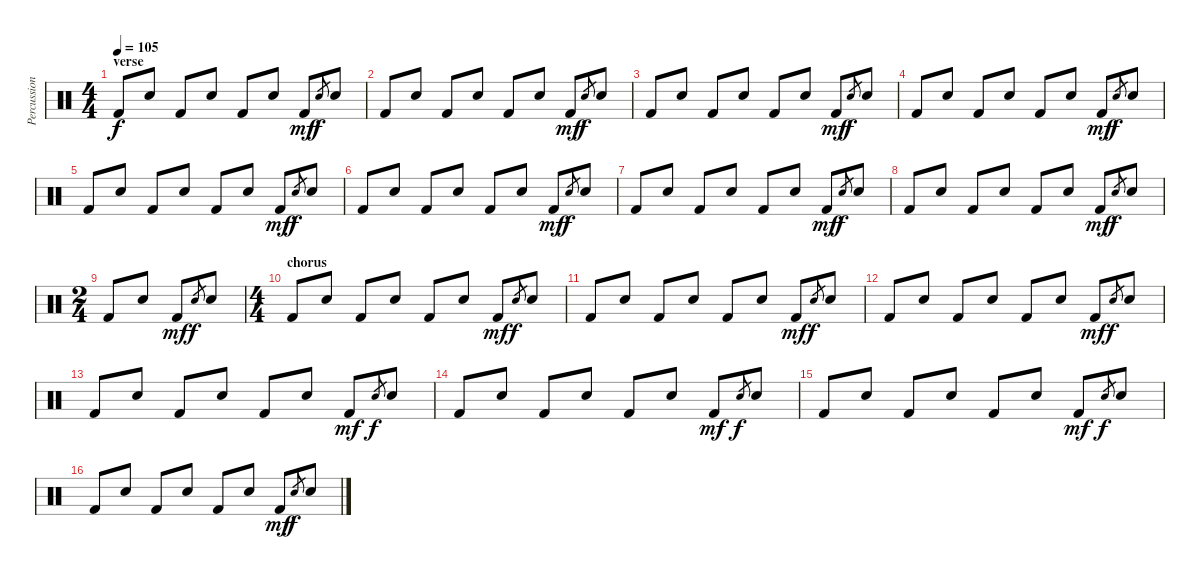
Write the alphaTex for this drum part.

\track ("Percussion" "Percussion") {instrument percussion}
\staff {score}
\articulation defaults
\ts (4 4)
\section ("" "verse")
\tempo 105
\clef neutral
\ks c "Kick (hit) 2".8{dy f} "Electric Snare (hit)".8 "Kick (hit) 2".8 "Electric Snare (hit)".8 "Kick (hit) 2".8 "Electric Snare (hit)".8 "Kick (hit) 2".8{dy mf} "Electric Snare (hit)".8{gr dy f} "Electric Snare (hit)".8
|
"Kick (hit) 2".8 "Electric Snare (hit)".8 "Kick (hit) 2".8 "Electric Snare (hit)".8 "Kick (hit) 2".8 "Electric Snare (hit)".8 "Kick (hit) 2".8{dy mf} "Electric Snare (hit)".8{gr dy f} "Electric Snare (hit)".8 |
"Kick (hit) 2".8 "Electric Snare (hit)".8 "Kick (hit) 2".8 "Electric Snare (hit)".8 "Kick (hit) 2".8 "Electric Snare (hit)".8 "Kick (hit) 2".8{dy mf} "Electric Snare (hit)".8{gr dy f} "Electric Snare (hit)".8 |
"Kick (hit) 2".8 "Electric Snare (hit)".8 "Kick (hit) 2".8 "Electric Snare (hit)".8 "Kick (hit) 2".8 "Electric Snare (hit)".8 "Kick (hit) 2".8{dy mf} "Electric Snare (hit)".8{gr dy f} "Electric Snare (hit)".8 |
"Kick (hit) 2".8 "Electric Snare (hit)".8 "Kick (hit) 2".8 "Electric Snare (hit)".8 "Kick (hit) 2".8 "Electric Snare (hit)".8 "Kick (hit) 2".8{dy mf} "Electric Snare (hit)".8{gr dy f} "Electric Snare (hit)".8 |
"Kick (hit) 2".8 "Electric Snare (hit)".8 "Kick (hit) 2".8 "Electric Snare (hit)".8 "Kick (hit) 2".8 "Electric Snare (hit)".8 "Kick (hit) 2".8{dy mf} "Electric Snare (hit)".8{gr dy f} "Electric Snare (hit)".8 |
"Kick (hit) 2".8 "Electric Snare (hit)".8 "Kick (hit) 2".8 "Electric Snare (hit)".8 "Kick (hit) 2".8 "Electric Snare (hit)".8 "Kick (hit) 2".8{dy mf} "Electric Snare (hit)".8{gr dy f} "Electric Snare (hit)".8 |
"Kick (hit) 2".8 "Electric Snare (hit)".8 "Kick (hit) 2".8 "Electric Snare (hit)".8 "Kick (hit) 2".8 "Electric Snare (hit)".8 "Kick (hit) 2".8{dy mf} "Electric Snare (hit)".8{gr dy f} "Electric Snare (hit)".8 |
\ts (2 4)
"Kick (hit) 2".8 "Electric Snare (hit)".8 "Kick (hit) 2".8{dy mf} "Electric Snare (hit)".8{gr dy f} "Electric Snare (hit)".8 |
\ts (4 4)
\section ("" "chorus")
"Kick (hit) 2".8 "Electric Snare (hit)".8 "Kick (hit) 2".8 "Electric Snare (hit)".8 "Kick (hit) 2".8 "Electric Snare (hit)".8 "Kick (hit) 2".8{dy mf} "Electric Snare (hit)".8{gr dy f} "Electric Snare (hit)".8 |
"Kick (hit) 2".8 "Electric Snare (hit)".8 "Kick (hit) 2".8 "Electric Snare (hit)".8 "Kick (hit) 2".8 "Electric Snare (hit)".8 "Kick (hit) 2".8{dy mf} "Electric Snare (hit)".8{gr dy f} "Electric Snare (hit)".8 |
"Kick (hit) 2".8 "Electric Snare (hit)".8 "Kick (hit) 2".8 "Electric Snare (hit)".8 "Kick (hit) 2".8 "Electric Snare (hit)".8 "Kick (hit) 2".8{dy mf} "Electric Snare (hit)".8{gr dy f} "Electric Snare (hit)".8 |
"Kick (hit) 2".8 "Electric Snare (hit)".8 "Kick (hit) 2".8 "Electric Snare (hit)".8 "Kick (hit) 2".8 "Electric Snare (hit)".8 "Kick (hit) 2".8{dy mf} "Electric Snare (hit)".8{gr dy f} "Electric Snare (hit)".8 |
"Kick (hit) 2".8 "Electric Snare (hit)".8 "Kick (hit) 2".8 "Electric Snare (hit)".8 "Kick (hit) 2".8 "Electric Snare (hit)".8 "Kick (hit) 2".8{dy mf} "Electric Snare (hit)".8{gr dy f} "Electric Snare (hit)".8 |
"Kick (hit) 2".8 "Electric Snare (hit)".8 "Kick (hit) 2".8 "Electric Snare (hit)".8 "Kick (hit) 2".8 "Electric Snare (hit)".8 "Kick (hit) 2".8{dy mf} "Electric Snare (hit)".8{gr dy f} "Electric Snare (hit)".8 |
"Kick (hit) 2".8 "Electric Snare (hit)".8 "Kick (hit) 2".8 "Electric Snare (hit)".8 "Kick (hit) 2".8 "Electric Snare (hit)".8 "Kick (hit) 2".8{dy mf} "Electric Snare (hit)".8{gr dy f} "Electric Snare (hit)".8
